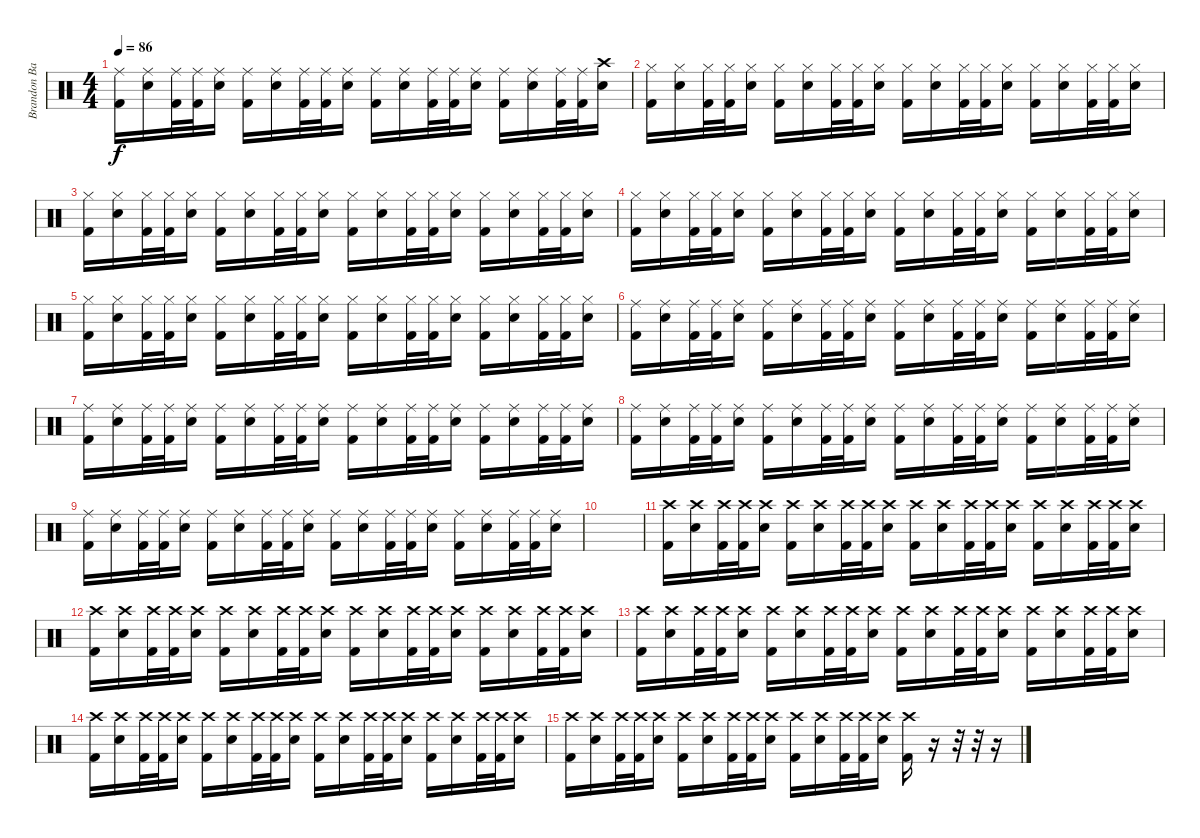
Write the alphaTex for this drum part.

\track ("Brandon Barnes" "Brandon Ba") {instrument percussion}
\staff {score}
\articulation defaults
\ts (4 4)
\tempo 86
\clef neutral
\ks c
("Kick (hit) 2" "Ride (middle)").16{dy f} ("Electric Snare (hit)" "Ride (middle)").16 ("Kick (hit) 2" "Ride (middle)").32 ("Kick (hit) 2" "Ride (middle)").32 ("Electric Snare (hit)" "Ride (middle)").16 ("Kick (hit) 2" "Ride (middle)").16 ("Electric Snare (hit)" "Ride (middle)").16 ("Kick (hit) 2" "Ride (middle)").32 ("Kick (hit) 2" "Ride (middle)").32 ("Electric Snare (hit)" "Ride (middle)").16 ("Kick (hit) 2" "Ride (middle)").16 ("Electric Snare (hit)" "Ride (middle)").16 ("Kick (hit) 2" "Ride (middle)").32 ("Kick (hit) 2" "Ride (middle)").32 ("Electric Snare (hit)" "Ride (middle)").16 ("Kick (hit) 2" "Ride (middle)").16 ("Electric Snare (hit)" "Ride (middle)").16 ("Kick (hit) 2" "Ride (middle)").32 ("Kick (hit) 2" "Ride (middle)").32 ("Electric Snare (hit)" "Crash high (hit)").16 |
("Kick (hit) 2" "Hi-Hat (closed)").16 ("Electric Snare (hit)" "Hi-Hat (closed)").16 ("Kick (hit) 2" "Hi-Hat (closed)").32 ("Kick (hit) 2" "Hi-Hat (closed)").32 ("Electric Snare (hit)" "Hi-Hat (closed)").16 ("Kick (hit) 2" "Hi-Hat (closed)").16 ("Electric Snare (hit)" "Hi-Hat (closed)").16 ("Kick (hit) 2" "Hi-Hat (closed)").32 ("Kick (hit) 2" "Hi-Hat (closed)").32 ("Electric Snare (hit)" "Hi-Hat (closed)").16 ("Kick (hit) 2" "Hi-Hat (closed)").16 ("Electric Snare (hit)" "Hi-Hat (closed)").16 ("Kick (hit) 2" "Hi-Hat (closed)").32 ("Kick (hit) 2" "Hi-Hat (closed)").32 ("Electric Snare (hit)" "Hi-Hat (closed)").16 ("Kick (hit) 2" "Hi-Hat (closed)").16 ("Electric Snare (hit)" "Hi-Hat (closed)").16 ("Kick (hit) 2" "Hi-Hat (closed)").32 ("Kick (hit) 2" "Hi-Hat (closed)").32 ("Electric Snare (hit)" "Hi-Hat (closed)").16 |
("Kick (hit) 2" "Hi-Hat (closed)").16 ("Electric Snare (hit)" "Hi-Hat (closed)").16 ("Kick (hit) 2" "Hi-Hat (closed)").32 ("Kick (hit) 2" "Hi-Hat (closed)").32 ("Electric Snare (hit)" "Hi-Hat (closed)").16 ("Kick (hit) 2" "Hi-Hat (closed)").16 ("Electric Snare (hit)" "Hi-Hat (closed)").16 ("Kick (hit) 2" "Hi-Hat (closed)").32 ("Kick (hit) 2" "Hi-Hat (closed)").32 ("Electric Snare (hit)" "Hi-Hat (closed)").16 ("Kick (hit) 2" "Hi-Hat (closed)").16 ("Electric Snare (hit)" "Hi-Hat (closed)").16 ("Kick (hit) 2" "Hi-Hat (closed)").32 ("Kick (hit) 2" "Hi-Hat (closed)").32 ("Electric Snare (hit)" "Hi-Hat (closed)").16 ("Kick (hit) 2" "Hi-Hat (closed)").16 ("Electric Snare (hit)" "Hi-Hat (closed)").16 ("Kick (hit) 2" "Hi-Hat (closed)").32 ("Kick (hit) 2" "Hi-Hat (closed)").32 ("Electric Snare (hit)" "Hi-Hat (closed)").16 |
("Kick (hit) 2" "Hi-Hat (closed)").16 ("Electric Snare (hit)" "Hi-Hat (closed)").16 ("Kick (hit) 2" "Hi-Hat (closed)").32 ("Kick (hit) 2" "Hi-Hat (closed)").32 ("Electric Snare (hit)" "Hi-Hat (closed)").16 ("Kick (hit) 2" "Hi-Hat (closed)").16 ("Electric Snare (hit)" "Hi-Hat (closed)").16 ("Kick (hit) 2" "Hi-Hat (closed)").32 ("Kick (hit) 2" "Hi-Hat (closed)").32 ("Electric Snare (hit)" "Hi-Hat (closed)").16 ("Kick (hit) 2" "Hi-Hat (closed)").16 ("Electric Snare (hit)" "Hi-Hat (closed)").16 ("Kick (hit) 2" "Hi-Hat (closed)").32 ("Kick (hit) 2" "Hi-Hat (closed)").32 ("Electric Snare (hit)" "Hi-Hat (closed)").16 ("Kick (hit) 2" "Hi-Hat (closed)").16 ("Electric Snare (hit)" "Hi-Hat (closed)").16 ("Kick (hit) 2" "Hi-Hat (closed)").32 ("Kick (hit) 2" "Hi-Hat (closed)").32 ("Electric Snare (hit)" "Hi-Hat (closed)").16 |
("Kick (hit) 2" "Hi-Hat (closed)").16 ("Electric Snare (hit)" "Hi-Hat (closed)").16 ("Kick (hit) 2" "Hi-Hat (closed)").32 ("Kick (hit) 2" "Hi-Hat (closed)").32 ("Electric Snare (hit)" "Hi-Hat (closed)").16 ("Kick (hit) 2" "Hi-Hat (closed)").16 ("Electric Snare (hit)" "Hi-Hat (closed)").16 ("Kick (hit) 2" "Hi-Hat (closed)").32 ("Kick (hit) 2" "Hi-Hat (closed)").32 ("Electric Snare (hit)" "Hi-Hat (closed)").16 ("Kick (hit) 2" "Hi-Hat (closed)").16 ("Electric Snare (hit)" "Hi-Hat (closed)").16 ("Kick (hit) 2" "Hi-Hat (closed)").32 ("Kick (hit) 2" "Hi-Hat (closed)").32 ("Electric Snare (hit)" "Hi-Hat (closed)").16 ("Kick (hit) 2" "Hi-Hat (closed)").16 ("Electric Snare (hit)" "Hi-Hat (closed)").16 ("Kick (hit) 2" "Hi-Hat (closed)").32 ("Kick (hit) 2" "Hi-Hat (closed)").32 ("Electric Snare (hit)" "Hi-Hat (closed)").16 |
("Kick (hit) 2" "Ride (middle)").16 ("Electric Snare (hit)" "Ride (middle)").16 ("Kick (hit) 2" "Ride (middle)").32 ("Kick (hit) 2" "Ride (middle)").32 ("Electric Snare (hit)" "Ride (middle)").16 ("Kick (hit) 2" "Ride (middle)").16 ("Electric Snare (hit)" "Ride (middle)").16 ("Kick (hit) 2" "Ride (middle)").32 ("Kick (hit) 2" "Ride (middle)").32 ("Electric Snare (hit)" "Ride (middle)").16 ("Kick (hit) 2" "Ride (middle)").16 ("Electric Snare (hit)" "Ride (middle)").16 ("Kick (hit) 2" "Ride (middle)").32 ("Kick (hit) 2" "Ride (middle)").32 ("Electric Snare (hit)" "Ride (middle)").16 ("Kick (hit) 2" "Ride (middle)").16 ("Electric Snare (hit)" "Ride (middle)").16 ("Kick (hit) 2" "Ride (middle)").32 ("Kick (hit) 2" "Ride (middle)").32 ("Electric Snare (hit)" "Ride (middle)").16 |
("Kick (hit) 2" "Ride (middle)").16 ("Electric Snare (hit)" "Ride (middle)").16 ("Kick (hit) 2" "Ride (middle)").32 ("Kick (hit) 2" "Ride (middle)").32 ("Electric Snare (hit)" "Ride (middle)").16 ("Kick (hit) 2" "Ride (middle)").16 ("Electric Snare (hit)" "Ride (middle)").16 ("Kick (hit) 2" "Ride (middle)").32 ("Kick (hit) 2" "Ride (middle)").32 ("Electric Snare (hit)" "Ride (middle)").16 ("Kick (hit) 2" "Ride (middle)").16 ("Electric Snare (hit)" "Ride (middle)").16 ("Kick (hit) 2" "Ride (middle)").32 ("Kick (hit) 2" "Ride (middle)").32 ("Electric Snare (hit)" "Ride (middle)").16 ("Kick (hit) 2" "Ride (middle)").16 ("Electric Snare (hit)" "Ride (middle)").16 ("Kick (hit) 2" "Ride (middle)").32 ("Kick (hit) 2" "Ride (middle)").32 ("Electric Snare (hit)" "Ride (middle)").16 |
("Kick (hit) 2" "Ride (middle)").16 ("Electric Snare (hit)" "Ride (middle)").16 ("Kick (hit) 2" "Ride (middle)").32 ("Kick (hit) 2" "Ride (middle)").32 ("Electric Snare (hit)" "Ride (middle)").16 ("Kick (hit) 2" "Ride (middle)").16 ("Electric Snare (hit)" "Ride (middle)").16 ("Kick (hit) 2" "Ride (middle)").32 ("Kick (hit) 2" "Ride (middle)").32 ("Electric Snare (hit)" "Ride (middle)").16 ("Kick (hit) 2" "Ride (middle)").16 ("Electric Snare (hit)" "Ride (middle)").16 ("Kick (hit) 2" "Ride (middle)").32 ("Kick (hit) 2" "Ride (middle)").32 ("Electric Snare (hit)" "Ride (middle)").16 ("Kick (hit) 2" "Ride (middle)").16 ("Electric Snare (hit)" "Ride (middle)").16 ("Kick (hit) 2" "Ride (middle)").32 ("Kick (hit) 2" "Ride (middle)").32 ("Electric Snare (hit)" "Ride (middle)").16 |
("Kick (hit) 2" "Ride (middle)").16 ("Electric Snare (hit)" "Ride (middle)").16 ("Kick (hit) 2" "Ride (middle)").32 ("Kick (hit) 2" "Ride (middle)").32 ("Electric Snare (hit)" "Ride (middle)").16 ("Kick (hit) 2" "Ride (middle)").16 ("Electric Snare (hit)" "Ride (middle)").16 ("Kick (hit) 2" "Ride (middle)").32 ("Kick (hit) 2" "Ride (middle)").32 ("Electric Snare (hit)" "Ride (middle)").16 ("Kick (hit) 2" "Ride (middle)").16 ("Electric Snare (hit)" "Ride (middle)").16 ("Kick (hit) 2" "Ride (middle)").32 ("Kick (hit) 2" "Ride (middle)").32 ("Electric Snare (hit)" "Ride (middle)").16 ("Kick (hit) 2" "Ride (middle)").16 ("Electric Snare (hit)" "Ride (middle)").16 ("Kick (hit) 2" "Ride (middle)").32 ("Kick (hit) 2" "Ride (middle)").32 ("Electric Snare (hit)" "Ride (middle)").16 |
|
("Kick (hit) 2" "Crash high (hit)").16 ("Electric Snare (hit)" "Crash high (hit)").16 ("Kick (hit) 2" "Crash high (hit)").32 ("Kick (hit) 2" "Crash high (hit)").32 ("Electric Snare (hit)" "Crash high (hit)").16 ("Kick (hit) 2" "Crash high (hit)").16 ("Electric Snare (hit)" "Crash high (hit)").16 ("Kick (hit) 2" "Crash high (hit)").32 ("Kick (hit) 2" "Crash high (hit)").32 ("Electric Snare (hit)" "Crash high (hit)").16 ("Kick (hit) 2" "Crash high (hit)").16 ("Electric Snare (hit)" "Crash high (hit)").16 ("Kick (hit) 2" "Crash high (hit)").32 ("Kick (hit) 2" "Crash high (hit)").32 ("Electric Snare (hit)" "Crash high (hit)").16 ("Kick (hit) 2" "Crash high (hit)").16 ("Electric Snare (hit)" "Crash high (hit)").16 ("Kick (hit) 2" "Crash high (hit)").32 ("Kick (hit) 2" "Crash high (hit)").32 ("Electric Snare (hit)" "Crash high (hit)").16 |
("Kick (hit) 2" "Crash high (hit)").16 ("Electric Snare (hit)" "Crash high (hit)").16 ("Kick (hit) 2" "Crash high (hit)").32 ("Kick (hit) 2" "Crash high (hit)").32 ("Electric Snare (hit)" "Crash high (hit)").16 ("Kick (hit) 2" "Crash high (hit)").16 ("Electric Snare (hit)" "Crash high (hit)").16 ("Kick (hit) 2" "Crash high (hit)").32 ("Kick (hit) 2" "Crash high (hit)").32 ("Electric Snare (hit)" "Crash high (hit)").16 ("Kick (hit) 2" "Crash high (hit)").16 ("Electric Snare (hit)" "Crash high (hit)").16 ("Kick (hit) 2" "Crash high (hit)").32 ("Kick (hit) 2" "Crash high (hit)").32 ("Electric Snare (hit)" "Crash high (hit)").16 ("Kick (hit) 2" "Crash high (hit)").16 ("Electric Snare (hit)" "Crash high (hit)").16 ("Kick (hit) 2" "Crash high (hit)").32 ("Kick (hit) 2" "Crash high (hit)").32 ("Electric Snare (hit)" "Crash high (hit)").16 |
("Kick (hit) 2" "Crash high (hit)").16 ("Electric Snare (hit)" "Crash high (hit)").16 ("Kick (hit) 2" "Crash high (hit)").32 ("Kick (hit) 2" "Crash high (hit)").32 ("Electric Snare (hit)" "Crash high (hit)").16 ("Kick (hit) 2" "Crash high (hit)").16 ("Electric Snare (hit)" "Crash high (hit)").16 ("Kick (hit) 2" "Crash high (hit)").32 ("Kick (hit) 2" "Crash high (hit)").32 ("Electric Snare (hit)" "Crash high (hit)").16 ("Kick (hit) 2" "Crash high (hit)").16 ("Electric Snare (hit)" "Crash high (hit)").16 ("Kick (hit) 2" "Crash high (hit)").32 ("Kick (hit) 2" "Crash high (hit)").32 ("Electric Snare (hit)" "Crash high (hit)").16 ("Kick (hit) 2" "Crash high (hit)").16 ("Electric Snare (hit)" "Crash high (hit)").16 ("Kick (hit) 2" "Crash high (hit)").32 ("Kick (hit) 2" "Crash high (hit)").32 ("Electric Snare (hit)" "Crash high (hit)").16 |
("Kick (hit) 2" "Crash high (hit)").16 ("Electric Snare (hit)" "Crash high (hit)").16 ("Kick (hit) 2" "Crash high (hit)").32 ("Kick (hit) 2" "Crash high (hit)").32 ("Electric Snare (hit)" "Crash high (hit)").16 ("Kick (hit) 2" "Crash high (hit)").16 ("Electric Snare (hit)" "Crash high (hit)").16 ("Kick (hit) 2" "Crash high (hit)").32 ("Kick (hit) 2" "Crash high (hit)").32 ("Electric Snare (hit)" "Crash high (hit)").16 ("Kick (hit) 2" "Crash high (hit)").16 ("Electric Snare (hit)" "Crash high (hit)").16 ("Kick (hit) 2" "Crash high (hit)").32 ("Kick (hit) 2" "Crash high (hit)").32 ("Electric Snare (hit)" "Crash high (hit)").16 ("Kick (hit) 2" "Crash high (hit)").16 ("Electric Snare (hit)" "Crash high (hit)").16 ("Kick (hit) 2" "Crash high (hit)").32 ("Kick (hit) 2" "Crash high (hit)").32 ("Electric Snare (hit)" "Crash high (hit)").16 |
("Kick (hit) 2" "Crash high (hit)").16 ("Electric Snare (hit)" "Crash high (hit)").16 ("Kick (hit) 2" "Crash high (hit)").32 ("Kick (hit) 2" "Crash high (hit)").32 ("Electric Snare (hit)" "Crash high (hit)").16 ("Kick (hit) 2" "Crash high (hit)").16 ("Electric Snare (hit)" "Crash high (hit)").16 ("Kick (hit) 2" "Crash high (hit)").32 ("Kick (hit) 2" "Crash high (hit)").32 ("Electric Snare (hit)" "Crash high (hit)").16 ("Kick (hit) 2" "Crash high (hit)").16 ("Electric Snare (hit)" "Crash high (hit)").16 ("Kick (hit) 2" "Crash high (hit)").32 ("Kick (hit) 2" "Crash high (hit)").32 ("Electric Snare (hit)" "Crash high (hit)").16 ("Kick (hit) 2" "Crash high (hit)").16 r.16 r.32 r.32 r.16
